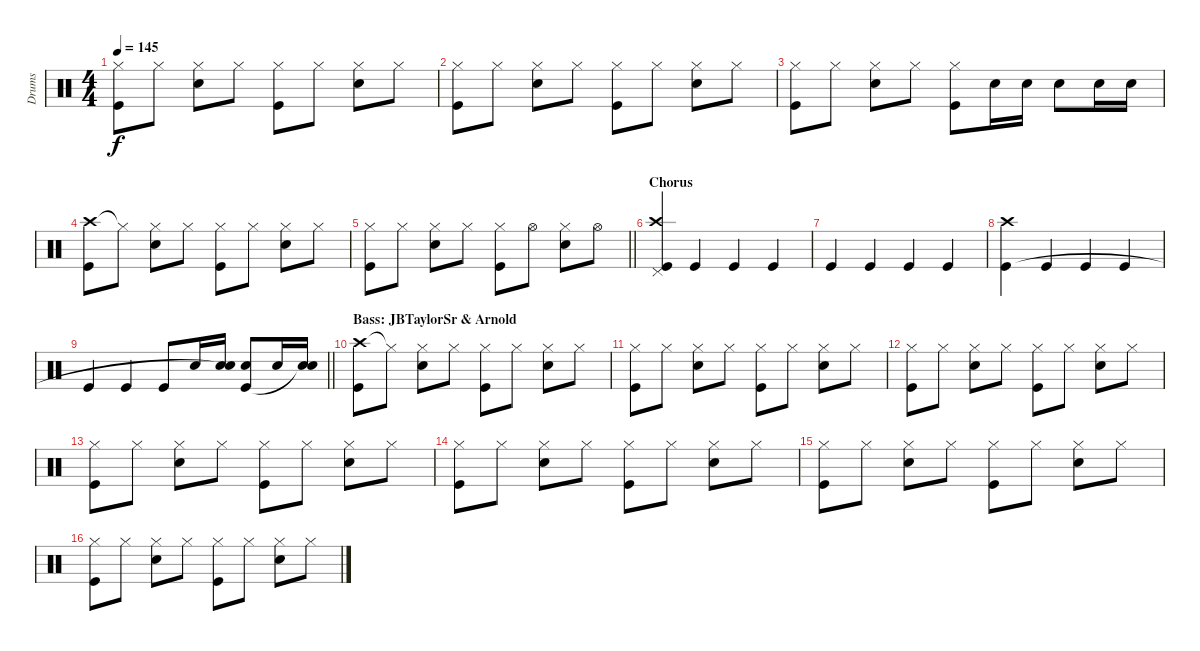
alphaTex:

\track ("Drums" "Drums") {instrument percussion}
\staff {score}
\articulation defaults
\ts (4 4)
\tempo 145
\clef neutral
\ks c
("Hi-Hat (closed)" "Kick (hit)").8{dy f} "Hi-Hat (closed)".8 ("Hi-Hat (closed)" "Electric Snare (hit)").8 "Hi-Hat (closed)".8 ("Hi-Hat (closed)" "Kick (hit)").8 "Hi-Hat (closed)".8 ("Hi-Hat (closed)" "Electric Snare (hit)").8 "Hi-Hat (closed)".8 |
("Hi-Hat (closed)" "Kick (hit)").8 "Hi-Hat (closed)".8 ("Hi-Hat (closed)" "Electric Snare (hit)").8 "Hi-Hat (closed)".8 ("Hi-Hat (closed)" "Kick (hit)").8 "Hi-Hat (closed)".8 ("Hi-Hat (closed)" "Electric Snare (hit)").8 "Hi-Hat (closed)".8 |
("Hi-Hat (closed)" "Kick (hit)").8 "Hi-Hat (closed)".8 ("Hi-Hat (closed)" "Electric Snare (hit)").8 "Hi-Hat (closed)".8 ("Hi-Hat (closed)" "Kick (hit)").8 "Electric Snare (hit)".16 "Electric Snare (hit)".16 "Electric Snare (hit)".8 "Electric Snare (hit)".16 "Electric Snare (hit)".16 |
("Crash high (hit)" "Kick (hit)").8 "Hi-Hat (closed)"{t}.8 ("Hi-Hat (closed)" "Electric Snare (hit)").8 "Hi-Hat (closed)".8 ("Hi-Hat (closed)" "Kick (hit)").8 "Hi-Hat (closed)".8 ("Hi-Hat (closed)" "Electric Snare (hit)").8 "Hi-Hat (closed)".8 |
\barLineRight lightlight
("Hi-Hat (closed)" "Kick (hit)").8 "Hi-Hat (closed)".8 ("Hi-Hat (closed)" "Electric Snare (hit)").8 "Hi-Hat (closed)".8 ("Hi-Hat (closed)" "Kick (hit)").8 "Hi-Hat (open)".8 ("Hi-Hat (closed)" "Electric Snare (hit)").8 "Hi-Hat (open)".8 |
\section ("" "Chorus")
("Pedal Hi-Hat (hit)" "Crash high (hit)" "Kick (hit)").4 "Kick (hit)".4 "Kick (hit)".4 "Kick (hit)".4 |
"Kick (hit)".4 "Kick (hit)".4 "Kick (hit)".4 "Kick (hit)".4 |
("Crash high (hit)" "Kick (hit)").4 "Kick (hit)".4 "Kick (hit)".4 "Kick (hit)".4 |
\barLineRight lightlight "Kick (hit)".4 "Kick (hit)".4 "Kick (hit)".8 "Electric Snare (hit)".16
("Electric Snare (hit)" "Snare (hit)"{t}).16 ("Electric Snare (hit)" "Kick (hit)").8 "Electric Snare (hit)".16 ("Electric Snare (hit)" "Snare (hit)"{t}).16 |
\section ("" "Bass: JBTaylorSr & Arnold")
("Crash high (hit)" "Kick (hit)").8 "Hi-Hat (closed)"{t}.8 ("Hi-Hat (closed)" "Electric Snare (hit)").8 "Hi-Hat (closed)".8 ("Hi-Hat (closed)" "Kick (hit)").8 "Hi-Hat (closed)".8 ("Hi-Hat (closed)" "Electric Snare (hit)").8 "Hi-Hat (closed)".8 |
("Hi-Hat (closed)" "Kick (hit)").8 "Hi-Hat (closed)".8 ("Hi-Hat (closed)" "Electric Snare (hit)").8 "Hi-Hat (closed)".8 ("Hi-Hat (closed)" "Kick (hit)").8 "Hi-Hat (closed)".8 ("Hi-Hat (closed)" "Electric Snare (hit)").8 "Hi-Hat (closed)".8 |
("Hi-Hat (closed)" "Kick (hit)").8 "Hi-Hat (closed)".8 ("Hi-Hat (closed)" "Electric Snare (hit)").8 "Hi-Hat (closed)".8 ("Hi-Hat (closed)" "Kick (hit)").8 "Hi-Hat (closed)".8 ("Hi-Hat (closed)" "Electric Snare (hit)").8 "Hi-Hat (closed)".8 |
("Hi-Hat (closed)" "Kick (hit)").8 "Hi-Hat (closed)".8 ("Hi-Hat (closed)" "Electric Snare (hit)").8 "Hi-Hat (closed)".8 ("Hi-Hat (closed)" "Kick (hit)").8 "Hi-Hat (closed)".8 ("Hi-Hat (closed)" "Electric Snare (hit)").8 "Hi-Hat (closed)".8 |
("Hi-Hat (closed)" "Kick (hit)").8 "Hi-Hat (closed)".8 ("Hi-Hat (closed)" "Electric Snare (hit)").8 "Hi-Hat (closed)".8 ("Hi-Hat (closed)" "Kick (hit)").8 "Hi-Hat (closed)".8 ("Hi-Hat (closed)" "Electric Snare (hit)").8 "Hi-Hat (closed)".8 |
("Hi-Hat (closed)" "Kick (hit)").8 "Hi-Hat (closed)".8 ("Hi-Hat (closed)" "Electric Snare (hit)").8 "Hi-Hat (closed)".8 ("Hi-Hat (closed)" "Kick (hit)").8 "Hi-Hat (closed)".8 ("Hi-Hat (closed)" "Electric Snare (hit)").8 "Hi-Hat (closed)".8 |
("Hi-Hat (closed)" "Kick (hit)").8 "Hi-Hat (closed)".8 ("Hi-Hat (closed)" "Electric Snare (hit)").8 "Hi-Hat (closed)".8 ("Hi-Hat (closed)" "Kick (hit)").8 "Hi-Hat (closed)".8 ("Hi-Hat (closed)" "Electric Snare (hit)").8 "Hi-Hat (closed)".8
